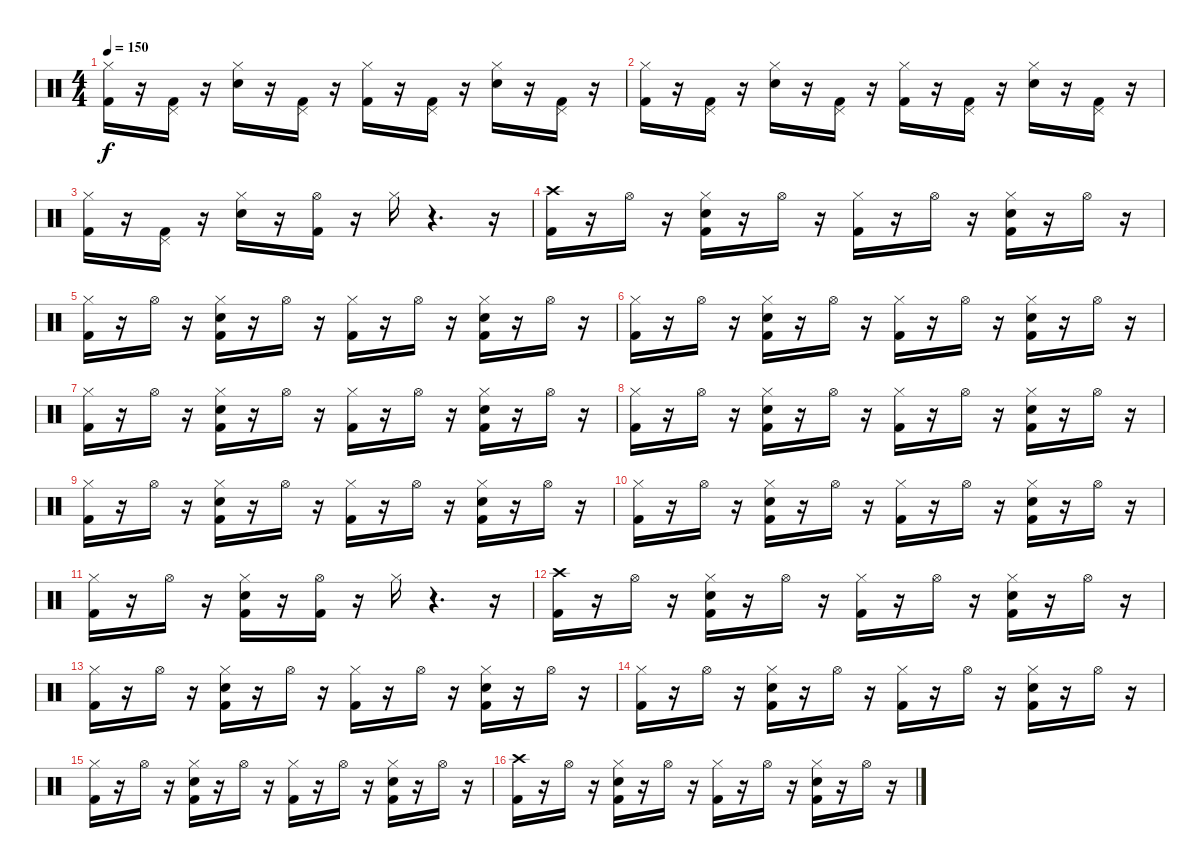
\track "" {instrument percussion}
\staff {score}
\articulation defaults
\ts (4 4)
\tempo 150
\clef neutral
\ks c
("Hi-Hat (closed)" "Kick (hit) 2").16{dy f} r.16 ("Pedal Hi-Hat (hit)" "Kick (hit) 2").16 r.16 ("Electric Snare (hit)" "Hi-Hat (closed)").16 r.16 ("Pedal Hi-Hat (hit)" "Kick (hit) 2").16 r.16 ("Kick (hit) 2" "Hi-Hat (closed)").16 r.16 ("Kick (hit) 2" "Pedal Hi-Hat (hit)").16 r.16 ("Electric Snare (hit)" "Hi-Hat (closed)").16 r.16 ("Pedal Hi-Hat (hit)" "Kick (hit) 2").16 r.16 |
("Kick (hit) 2" "Hi-Hat (closed)").16 r.16 ("Kick (hit) 2" "Pedal Hi-Hat (hit)").16 r.16 ("Hi-Hat (closed)" "Electric Snare (hit)").16 r.16 ("Pedal Hi-Hat (hit)" "Kick (hit) 2").16 r.16 ("Hi-Hat (closed)" "Kick (hit) 2").16 r.16 ("Pedal Hi-Hat (hit)" "Kick (hit) 2").16 r.16 ("Hi-Hat (closed)" "Electric Snare (hit)").16 r.16 ("Pedal Hi-Hat (hit)" "Kick (hit) 2").16 r.16 |
("Kick (hit) 2" "Hi-Hat (closed)").16 r.16 ("Pedal Hi-Hat (hit)" "Kick (hit) 2").16 r.16 ("Electric Snare (hit)" "Hi-Hat (closed)").16 r.16 ("Hi-Hat (open)" "Kick (hit) 2").16 r.16 "Hi-Hat (closed)".16 r.4{d} r.16 |
("Crash high (hit)" "Kick (hit) 2").16 r.16 "Hi-Hat (open)".16 r.16 ("Electric Snare (hit)" "Hi-Hat (closed)" "Kick (hit) 2").16 r.16 "Hi-Hat (open)".16 r.16 ("Hi-Hat (closed)" "Kick (hit) 2").16 r.16 "Hi-Hat (open)".16 r.16 ("Electric Snare (hit)" "Hi-Hat (closed)" "Kick (hit) 2").16 r.16 "Hi-Hat (open)".16 r.16 |
("Hi-Hat (closed)" "Kick (hit) 2").16 r.16 "Hi-Hat (open)".16 r.16 ("Electric Snare (hit)" "Kick (hit) 2" "Hi-Hat (closed)").16 r.16 "Hi-Hat (open)".16 r.16 ("Kick (hit) 2" "Hi-Hat (closed)").16 r.16 "Hi-Hat (open)".16 r.16 ("Electric Snare (hit)" "Kick (hit) 2" "Hi-Hat (closed)").16 r.16 "Hi-Hat (open)".16 r.16 |
("Hi-Hat (closed)" "Kick (hit) 2").16 r.16 "Hi-Hat (open)".16 r.16 ("Electric Snare (hit)" "Hi-Hat (closed)" "Kick (hit) 2").16 r.16 "Hi-Hat (open)".16 r.16 ("Hi-Hat (closed)" "Kick (hit) 2").16 r.16 "Hi-Hat (open)".16 r.16 ("Electric Snare (hit)" "Hi-Hat (closed)" "Kick (hit) 2").16 r.16 "Hi-Hat (open)".16 r.16 |
("Hi-Hat (closed)" "Kick (hit) 2").16 r.16 "Hi-Hat (open)".16 r.16 ("Electric Snare (hit)" "Kick (hit) 2" "Hi-Hat (closed)").16 r.16 "Hi-Hat (open)".16 r.16 ("Kick (hit) 2" "Hi-Hat (closed)").16 r.16 "Hi-Hat (open)".16 r.16 ("Electric Snare (hit)" "Kick (hit) 2" "Hi-Hat (closed)").16 r.16 "Hi-Hat (open)".16 r.16 |
("Hi-Hat (closed)" "Kick (hit) 2").16 r.16 "Hi-Hat (open)".16 r.16 ("Hi-Hat (closed)" "Kick (hit) 2" "Electric Snare (hit)").16 r.16 "Hi-Hat (open)".16 r.16 ("Hi-Hat (closed)" "Kick (hit) 2").16 r.16 "Hi-Hat (open)".16 r.16 ("Hi-Hat (closed)" "Kick (hit) 2" "Electric Snare (hit)").16 r.16 "Hi-Hat (open)".16 r.16 |
("Hi-Hat (closed)" "Kick (hit) 2").16 r.16 "Hi-Hat (open)".16 r.16 ("Electric Snare (hit)" "Kick (hit) 2" "Hi-Hat (closed)").16 r.16 "Hi-Hat (open)".16 r.16 ("Kick (hit) 2" "Hi-Hat (closed)").16 r.16 "Hi-Hat (open)".16 r.16 ("Electric Snare (hit)" "Kick (hit) 2" "Hi-Hat (closed)").16 r.16 "Hi-Hat (open)".16 r.16 |
("Hi-Hat (closed)" "Kick (hit) 2").16 r.16 "Hi-Hat (open)".16 r.16 ("Hi-Hat (closed)" "Kick (hit) 2" "Electric Snare (hit)").16 r.16 "Hi-Hat (open)".16 r.16 ("Hi-Hat (closed)" "Kick (hit) 2").16 r.16 "Hi-Hat (open)".16 r.16 ("Hi-Hat (closed)" "Kick (hit) 2" "Electric Snare (hit)").16 r.16 "Hi-Hat (open)".16 r.16 |
("Hi-Hat (closed)" "Kick (hit) 2").16 r.16 "Hi-Hat (open)".16 r.16 ("Electric Snare (hit)" "Kick (hit) 2" "Hi-Hat (closed)").16 r.16 ("Hi-Hat (open)" "Kick (hit) 2").16 r.16 "Hi-Hat (closed)".16 r.4{d} r.16 |
("Crash high (hit)" "Kick (hit) 2").16 r.16 "Hi-Hat (open)".16 r.16 ("Kick (hit) 2" "Hi-Hat (closed)" "Electric Snare (hit)").16 r.16 "Hi-Hat (open)".16 r.16 ("Kick (hit) 2" "Hi-Hat (closed)").16 r.16 "Hi-Hat (open)".16 r.16 ("Kick (hit) 2" "Hi-Hat (closed)" "Electric Snare (hit)").16 r.16 "Hi-Hat (open)".16 r.16 |
("Kick (hit) 2" "Hi-Hat (closed)").16 r.16 "Hi-Hat (open)".16 r.16 ("Hi-Hat (closed)" "Kick (hit) 2" "Electric Snare (hit)").16 r.16 "Hi-Hat (open)".16 r.16 ("Hi-Hat (closed)" "Kick (hit) 2").16 r.16 "Hi-Hat (open)".16 r.16 ("Hi-Hat (closed)" "Kick (hit) 2" "Electric Snare (hit)").16 r.16 "Hi-Hat (open)".16 r.16 |
("Kick (hit) 2" "Hi-Hat (closed)").16 r.16 "Hi-Hat (open)".16 r.16 ("Electric Snare (hit)" "Kick (hit) 2" "Hi-Hat (closed)").16 r.16 "Hi-Hat (open)".16 r.16 ("Kick (hit) 2" "Hi-Hat (closed)").16 r.16 "Hi-Hat (open)".16 r.16 ("Electric Snare (hit)" "Kick (hit) 2" "Hi-Hat (closed)").16 r.16 "Hi-Hat (open)".16 r.16 |
("Kick (hit) 2" "Hi-Hat (closed)").16 r.16 "Hi-Hat (open)".16 r.16 ("Hi-Hat (closed)" "Kick (hit) 2" "Electric Snare (hit)").16 r.16 "Hi-Hat (open)".16 r.16 ("Hi-Hat (closed)" "Kick (hit) 2").16 r.16 "Hi-Hat (open)".16 r.16 ("Hi-Hat (closed)" "Kick (hit) 2" "Electric Snare (hit)").16 r.16 "Hi-Hat (open)".16 r.16 |
("Crash high (hit)" "Kick (hit) 2").16 r.16 "Hi-Hat (open)".16 r.16 ("Electric Snare (hit)" "Kick (hit) 2" "Hi-Hat (closed)").16 r.16 "Hi-Hat (open)".16 r.16 ("Kick (hit) 2" "Hi-Hat (closed)").16 r.16 "Hi-Hat (open)".16 r.16 ("Electric Snare (hit)" "Kick (hit) 2" "Hi-Hat (closed)").16 r.16 "Hi-Hat (open)".16 r.16
